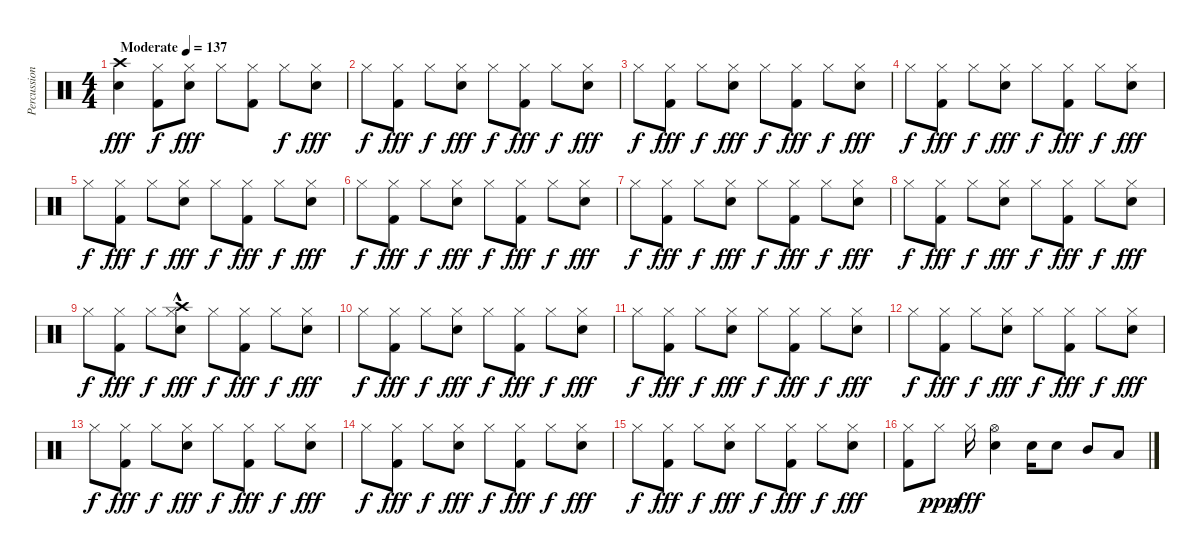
\track ("Percussion" "Percussion") {solo instrument percussion}
\staff {score}
\articulation defaults
\ts (4 4)
\tempo (137 "Moderate")
\clef neutral
\ks c
("Crash high (hit)" "Electric Snare (hit)").4{dy fff} ("Hi-Hat (closed)" "Kick (hit) 2").8{dy f} ("Hi-Hat (closed)" "Electric Snare (hit)").8{dy fff} "Hi-Hat (closed)".8 ("Hi-Hat (closed)" "Kick (hit) 2").8 "Hi-Hat (closed)".8{dy f} ("Hi-Hat (closed)" "Electric Snare (hit)").8{dy fff} |
"Hi-Hat (closed)".8{dy f} ("Hi-Hat (closed)" "Kick (hit) 2").8{dy fff} "Hi-Hat (closed)".8{dy f} ("Hi-Hat (closed)" "Electric Snare (hit)").8{dy fff} "Hi-Hat (closed)".8{dy f} ("Hi-Hat (closed)" "Kick (hit) 2").8{dy fff} "Hi-Hat (closed)".8{dy f} ("Hi-Hat (closed)" "Electric Snare (hit)").8{dy fff} |
"Hi-Hat (closed)".8{dy f} ("Hi-Hat (closed)" "Kick (hit) 2").8{dy fff} "Hi-Hat (closed)".8{dy f} ("Hi-Hat (closed)" "Electric Snare (hit)").8{dy fff} "Hi-Hat (closed)".8{dy f} ("Hi-Hat (closed)" "Kick (hit) 2").8{dy fff} "Hi-Hat (closed)".8{dy f} ("Hi-Hat (closed)" "Electric Snare (hit)").8{dy fff} |
"Hi-Hat (closed)".8{dy f} ("Hi-Hat (closed)" "Kick (hit) 2").8{dy fff} "Hi-Hat (closed)".8{dy f} ("Hi-Hat (closed)" "Electric Snare (hit)").8{dy fff} "Hi-Hat (closed)".8{dy f} ("Hi-Hat (closed)" "Kick (hit) 2").8{dy fff} "Hi-Hat (closed)".8{dy f} ("Hi-Hat (closed)" "Electric Snare (hit)").8{dy fff} |
"Hi-Hat (closed)".8{dy f} ("Hi-Hat (closed)" "Kick (hit) 2").8{dy fff} "Hi-Hat (closed)".8{dy f} ("Hi-Hat (closed)" "Electric Snare (hit)").8{dy fff} "Hi-Hat (closed)".8{dy f} ("Hi-Hat (closed)" "Kick (hit) 2").8{dy fff} "Hi-Hat (closed)".8{dy f} ("Hi-Hat (closed)" "Electric Snare (hit)").8{dy fff} |
"Hi-Hat (closed)".8{dy f} ("Hi-Hat (closed)" "Kick (hit) 2").8{dy fff} "Hi-Hat (closed)".8{dy f} ("Hi-Hat (closed)" "Electric Snare (hit)").8{dy fff} "Hi-Hat (closed)".8{dy f} ("Hi-Hat (closed)" "Kick (hit) 2").8{dy fff} "Hi-Hat (closed)".8{dy f} ("Hi-Hat (closed)" "Electric Snare (hit)").8{dy fff} |
"Hi-Hat (closed)".8{dy f} ("Hi-Hat (closed)" "Kick (hit) 2").8{dy fff} "Hi-Hat (closed)".8{dy f} ("Hi-Hat (closed)" "Electric Snare (hit)").8{dy fff} "Hi-Hat (closed)".8{dy f} ("Hi-Hat (closed)" "Kick (hit) 2").8{dy fff} "Hi-Hat (closed)".8{dy f} ("Hi-Hat (closed)" "Electric Snare (hit)").8{dy fff} |
"Hi-Hat (closed)".8{dy f} ("Hi-Hat (closed)" "Kick (hit) 2").8{dy fff} "Hi-Hat (closed)".8{dy f} ("Hi-Hat (closed)" "Electric Snare (hit)").8{dy fff} "Hi-Hat (closed)".8{dy f} ("Hi-Hat (closed)" "Kick (hit) 2").8{dy fff} "Hi-Hat (closed)".8{dy f} ("Hi-Hat (closed)" "Electric Snare (hit)").8{dy fff} |
"Hi-Hat (closed)".8{dy f} ("Hi-Hat (closed)" "Kick (hit) 2").8{dy fff} "Hi-Hat (closed)".8{dy f} ("Hi-Hat (closed)"{hac} "Electric Snare (hit)" "Crash high (hit)").8{dy fff} "Hi-Hat (closed)".8{dy f} ("Hi-Hat (closed)" "Kick (hit) 2").8{dy fff} "Hi-Hat (closed)".8{dy f} ("Hi-Hat (closed)" "Electric Snare (hit)").8{dy fff} |
"Hi-Hat (closed)".8{dy f} ("Hi-Hat (closed)" "Kick (hit) 2").8{dy fff} "Hi-Hat (closed)".8{dy f} ("Hi-Hat (closed)" "Electric Snare (hit)").8{dy fff} "Hi-Hat (closed)".8{dy f} ("Hi-Hat (closed)" "Kick (hit) 2").8{dy fff} "Hi-Hat (closed)".8{dy f} ("Hi-Hat (closed)" "Electric Snare (hit)").8{dy fff} |
"Hi-Hat (closed)".8{dy f} ("Hi-Hat (closed)" "Kick (hit) 2").8{dy fff} "Hi-Hat (closed)".8{dy f} ("Hi-Hat (closed)" "Electric Snare (hit)").8{dy fff} "Hi-Hat (closed)".8{dy f} ("Hi-Hat (closed)" "Kick (hit) 2").8{dy fff} "Hi-Hat (closed)".8{dy f} ("Hi-Hat (closed)" "Electric Snare (hit)").8{dy fff} |
"Hi-Hat (closed)".8{dy f} ("Hi-Hat (closed)" "Kick (hit) 2").8{dy fff} "Hi-Hat (closed)".8{dy f} ("Hi-Hat (closed)" "Electric Snare (hit)").8{dy fff} "Hi-Hat (closed)".8{dy f} ("Hi-Hat (closed)" "Kick (hit) 2").8{dy fff} "Hi-Hat (closed)".8{dy f} ("Hi-Hat (closed)" "Electric Snare (hit)").8{dy fff} |
"Hi-Hat (closed)".8{dy f} ("Hi-Hat (closed)" "Kick (hit) 2").8{dy fff} "Hi-Hat (closed)".8{dy f} ("Hi-Hat (closed)" "Electric Snare (hit)").8{dy fff} "Hi-Hat (closed)".8{dy f} ("Hi-Hat (closed)" "Kick (hit) 2").8{dy fff} "Hi-Hat (closed)".8{dy f} ("Hi-Hat (closed)" "Electric Snare (hit)").8{dy fff} |
"Hi-Hat (closed)".8{dy f} ("Hi-Hat (closed)" "Kick (hit) 2").8{dy fff} "Hi-Hat (closed)".8{dy f} ("Hi-Hat (closed)" "Electric Snare (hit)").8{dy fff} "Hi-Hat (closed)".8{dy f} ("Hi-Hat (closed)" "Kick (hit) 2").8{dy fff} "Hi-Hat (closed)".8{dy f} ("Hi-Hat (closed)" "Electric Snare (hit)").8{dy fff} |
"Hi-Hat (closed)".8{dy f} ("Hi-Hat (closed)" "Kick (hit) 2").8{dy fff} "Hi-Hat (closed)".8{dy f} ("Hi-Hat (closed)" "Electric Snare (hit)").8{dy fff} "Hi-Hat (closed)".8{dy f} ("Hi-Hat (closed)" "Kick (hit) 2").8{dy fff} "Hi-Hat (closed)".8{dy f} ("Hi-Hat (closed)" "Electric Snare (hit)").8{dy fff} |
("Hi-Hat (closed)" "Kick (hit) 2").8 "Hi-Hat (closed)".8{dy ppp} "Hi-Hat (closed)".16{dy fff} ("Hi-Hat (open)" "Electric Snare (hit)").4 "Electric Snare (hit)".16 "Electric Snare (hit)".8 "Mid Tom (hit)".8 "Low Tom (hit)".8
